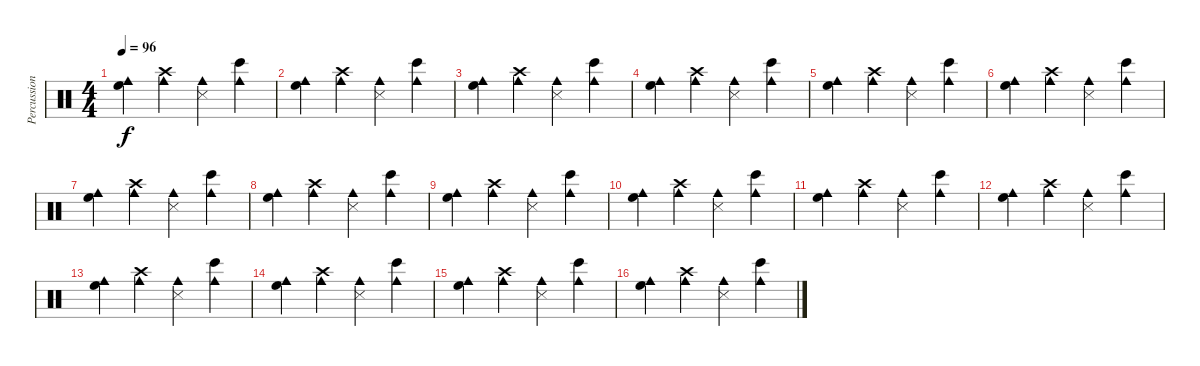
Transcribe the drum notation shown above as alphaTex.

\track ("Percussion (Mason)" "Percussion") {instrument percussion}
\staff {score}
\articulation defaults
\ts (4 4)
\tempo 96
\clef neutral
\ks c
("High Floor Tom (hit)" "Cowbell medium (hit)").4{dy f} ("Crash high (hit)" "Cowbell medium (hit)").4 ("Metronome (hit)" "Cowbell medium (hit)").4 ("Bongo High (hit)" "Cowbell medium (hit)").4 |
("High Floor Tom (hit)" "Cowbell medium (hit)").4 ("Crash high (hit)" "Cowbell medium (hit)").4 ("Metronome (hit)" "Cowbell medium (hit)").4 ("Bongo High (hit)" "Cowbell medium (hit)").4 |
("High Floor Tom (hit)" "Cowbell medium (hit)").4 ("Crash high (hit)" "Cowbell medium (hit)").4 ("Metronome (hit)" "Cowbell medium (hit)").4 ("Bongo High (hit)" "Cowbell medium (hit)").4 |
("High Floor Tom (hit)" "Cowbell medium (hit)").4 ("Crash high (hit)" "Cowbell medium (hit)").4 ("Metronome (hit)" "Cowbell medium (hit)").4 ("Bongo High (hit)" "Cowbell medium (hit)").4 |
("High Floor Tom (hit)" "Cowbell medium (hit)").4 ("Crash high (hit)" "Cowbell medium (hit)").4 ("Metronome (hit)" "Cowbell medium (hit)").4 ("Bongo High (hit)" "Cowbell medium (hit)").4 |
("High Floor Tom (hit)" "Cowbell medium (hit)").4 ("Crash high (hit)" "Cowbell medium (hit)").4 ("Metronome (hit)" "Cowbell medium (hit)").4 ("Bongo High (hit)" "Cowbell medium (hit)").4 |
("High Floor Tom (hit)" "Cowbell medium (hit)").4 ("Crash high (hit)" "Cowbell medium (hit)").4 ("Metronome (hit)" "Cowbell medium (hit)").4 ("Bongo High (hit)" "Cowbell medium (hit)").4 |
("High Floor Tom (hit)" "Cowbell medium (hit)").4 ("Crash high (hit)" "Cowbell medium (hit)").4 ("Metronome (hit)" "Cowbell medium (hit)").4 ("Bongo High (hit)" "Cowbell medium (hit)").4 |
("High Floor Tom (hit)" "Cowbell medium (hit)").4 ("Crash high (hit)" "Cowbell medium (hit)").4 ("Metronome (hit)" "Cowbell medium (hit)").4 ("Bongo High (hit)" "Cowbell medium (hit)").4 |
("High Floor Tom (hit)" "Cowbell medium (hit)").4 ("Crash high (hit)" "Cowbell medium (hit)").4 ("Metronome (hit)" "Cowbell medium (hit)").4 ("Bongo High (hit)" "Cowbell medium (hit)").4 |
("High Floor Tom (hit)" "Cowbell medium (hit)").4 ("Crash high (hit)" "Cowbell medium (hit)").4 ("Metronome (hit)" "Cowbell medium (hit)").4 ("Bongo High (hit)" "Cowbell medium (hit)").4 |
("High Floor Tom (hit)" "Cowbell medium (hit)").4 ("Crash high (hit)" "Cowbell medium (hit)").4 ("Metronome (hit)" "Cowbell medium (hit)").4 ("Bongo High (hit)" "Cowbell medium (hit)").4 |
("High Floor Tom (hit)" "Cowbell medium (hit)").4 ("Crash high (hit)" "Cowbell medium (hit)").4 ("Metronome (hit)" "Cowbell medium (hit)").4 ("Bongo High (hit)" "Cowbell medium (hit)").4 |
("High Floor Tom (hit)" "Cowbell medium (hit)").4 ("Crash high (hit)" "Cowbell medium (hit)").4 ("Metronome (hit)" "Cowbell medium (hit)").4 ("Bongo High (hit)" "Cowbell medium (hit)").4 |
("High Floor Tom (hit)" "Cowbell medium (hit)").4 ("Crash high (hit)" "Cowbell medium (hit)").4 ("Metronome (hit)" "Cowbell medium (hit)").4 ("Bongo High (hit)" "Cowbell medium (hit)").4 |
("High Floor Tom (hit)" "Cowbell medium (hit)").4 ("Crash high (hit)" "Cowbell medium (hit)").4 ("Metronome (hit)" "Cowbell medium (hit)").4 ("Bongo High (hit)" "Cowbell medium (hit)").4
